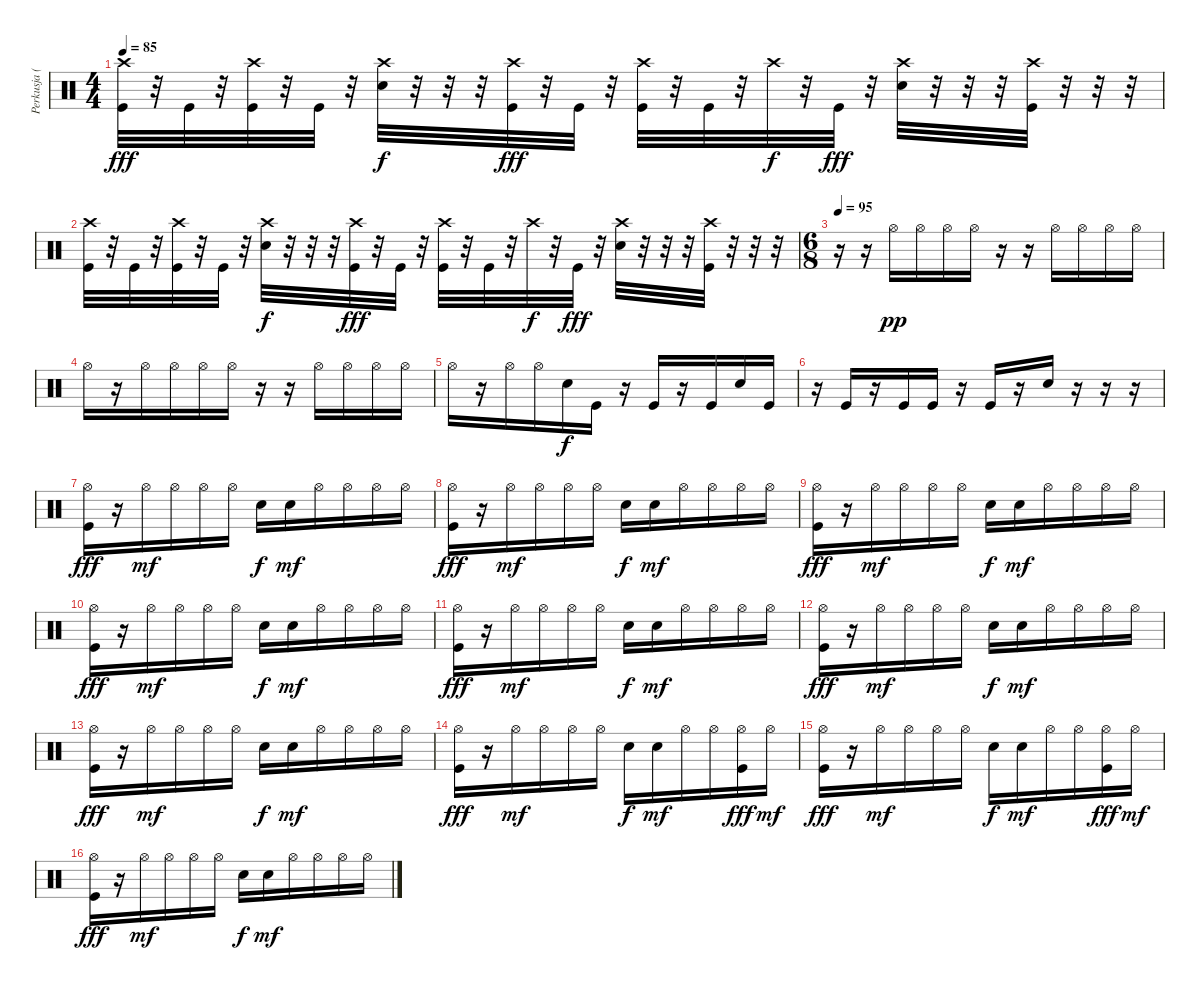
\track ("Perkusja (by kucharz89)" "Perkusja (") {instrument percussion}
\staff {score}
\articulation defaults
\ts (4 4)
\tempo 85
\clef neutral
\ks c
("Crash high (hit)" "Kick (hit)").32{dy fff} r.32 "Kick (hit)".32 r.32 ("Crash high (hit)" "Kick (hit)").32 r.32 "Kick (hit)".32 r.32 ("Crash high (hit)" "Electric Snare (hit)").32{dy f} r.32 r.32 r.32 ("Crash high (hit)" "Kick (hit)").32{dy fff} r.32 "Kick (hit)".32 r.32 ("Crash high (hit)" "Kick (hit)").32 r.32 "Kick (hit)".32 r.32 "Crash high (hit)".32{dy f} r.32 "Kick (hit)".32{dy fff} r.32 ("Crash high (hit)" "Electric Snare (hit)").32 r.32 r.32 r.32 ("Crash high (hit)" "Kick (hit)").32 r.32 r.32 r.32 |
("Crash high (hit)" "Kick (hit)").32 r.32 "Kick (hit)".32 r.32 ("Crash high (hit)" "Kick (hit)").32 r.32 "Kick (hit)".32 r.32 ("Crash high (hit)" "Electric Snare (hit)").32{dy f} r.32 r.32 r.32 ("Crash high (hit)" "Kick (hit)").32{dy fff} r.32 "Kick (hit)".32 r.32 ("Crash high (hit)" "Kick (hit)").32 r.32 "Kick (hit)".32 r.32 "Crash high (hit)".32{dy f} r.32 "Kick (hit)".32{dy fff} r.32 ("Crash high (hit)" "Electric Snare (hit)").32 r.32 r.32 r.32 ("Crash high (hit)" "Kick (hit)").32 r.32 r.32 r.32 |
\ts (6 8)
\tempo 95
r.16 r.16 "Hi-Hat (open)".16{dy pp} "Hi-Hat (open)".16 "Hi-Hat (open)".16 "Hi-Hat (open)".16 r.16 r.16 "Hi-Hat (open)".16 "Hi-Hat (open)".16 "Hi-Hat (open)".16 "Hi-Hat (open)".16 |
"Hi-Hat (open)".16 r.16 "Hi-Hat (open)".16 "Hi-Hat (open)".16 "Hi-Hat (open)".16 "Hi-Hat (open)".16 r.16 r.16 "Hi-Hat (open)".16 "Hi-Hat (open)".16 "Hi-Hat (open)".16 "Hi-Hat (open)".16 |
"Hi-Hat (open)".16 r.16 "Hi-Hat (open)".16 "Hi-Hat (open)".16 "Electric Snare (hit)".16{dy f} "Kick (hit)".16 r.16 "Kick (hit)".16 r.16 "Kick (hit)".16 "Electric Snare (hit)".16 "Kick (hit)".16 |
r.16 "Kick (hit)".16 r.16 "Kick (hit)".16 "Kick (hit)".16 r.16 "Kick (hit)".16 r.16 "Electric Snare (hit)".16 r.16 r.16 r.16 |
("Hi-Hat (open)" "Kick (hit)").16{dy fff} r.16 "Hi-Hat (open)".16{dy mf} "Hi-Hat (open)".16 "Hi-Hat (open)".16 "Hi-Hat (open)".16 "Electric Snare (hit)".16{dy f} "Electric Snare (hit)".16{dy mf} "Hi-Hat (open)".16 "Hi-Hat (open)".16 "Hi-Hat (open)".16 "Hi-Hat (open)".16 |
("Hi-Hat (open)" "Kick (hit)").16{dy fff} r.16 "Hi-Hat (open)".16{dy mf} "Hi-Hat (open)".16 "Hi-Hat (open)".16 "Hi-Hat (open)".16 "Electric Snare (hit)".16{dy f} "Electric Snare (hit)".16{dy mf} "Hi-Hat (open)".16 "Hi-Hat (open)".16 "Hi-Hat (open)".16 "Hi-Hat (open)".16 |
("Hi-Hat (open)" "Kick (hit)").16{dy fff} r.16 "Hi-Hat (open)".16{dy mf} "Hi-Hat (open)".16 "Hi-Hat (open)".16 "Hi-Hat (open)".16 "Electric Snare (hit)".16{dy f} "Electric Snare (hit)".16{dy mf} "Hi-Hat (open)".16 "Hi-Hat (open)".16 "Hi-Hat (open)".16 "Hi-Hat (open)".16 |
("Hi-Hat (open)" "Kick (hit)").16{dy fff} r.16 "Hi-Hat (open)".16{dy mf} "Hi-Hat (open)".16 "Hi-Hat (open)".16 "Hi-Hat (open)".16 "Electric Snare (hit)".16{dy f} "Electric Snare (hit)".16{dy mf} "Hi-Hat (open)".16 "Hi-Hat (open)".16 "Hi-Hat (open)".16 "Hi-Hat (open)".16 |
("Hi-Hat (open)" "Kick (hit)").16{dy fff} r.16 "Hi-Hat (open)".16{dy mf} "Hi-Hat (open)".16 "Hi-Hat (open)".16 "Hi-Hat (open)".16 "Electric Snare (hit)".16{dy f} "Electric Snare (hit)".16{dy mf} "Hi-Hat (open)".16 "Hi-Hat (open)".16 "Hi-Hat (open)".16 "Hi-Hat (open)".16 |
("Hi-Hat (open)" "Kick (hit)").16{dy fff} r.16 "Hi-Hat (open)".16{dy mf} "Hi-Hat (open)".16 "Hi-Hat (open)".16 "Hi-Hat (open)".16 "Electric Snare (hit)".16{dy f} "Electric Snare (hit)".16{dy mf} "Hi-Hat (open)".16 "Hi-Hat (open)".16 "Hi-Hat (open)".16 "Hi-Hat (open)".16 |
("Hi-Hat (open)" "Kick (hit)").16{dy fff} r.16 "Hi-Hat (open)".16{dy mf} "Hi-Hat (open)".16 "Hi-Hat (open)".16 "Hi-Hat (open)".16 "Electric Snare (hit)".16{dy f} "Electric Snare (hit)".16{dy mf} "Hi-Hat (open)".16 "Hi-Hat (open)".16 "Hi-Hat (open)".16 "Hi-Hat (open)".16 |
("Hi-Hat (open)" "Kick (hit)").16{dy fff} r.16 "Hi-Hat (open)".16{dy mf} "Hi-Hat (open)".16 "Hi-Hat (open)".16 "Hi-Hat (open)".16 "Electric Snare (hit)".16{dy f} "Electric Snare (hit)".16{dy mf} "Hi-Hat (open)".16 "Hi-Hat (open)".16 ("Hi-Hat (open)" "Kick (hit)").16{dy fff} "Hi-Hat (open)".16{dy mf} |
("Hi-Hat (open)" "Kick (hit)").16{dy fff} r.16 "Hi-Hat (open)".16{dy mf} "Hi-Hat (open)".16 "Hi-Hat (open)".16 "Hi-Hat (open)".16 "Electric Snare (hit)".16{dy f} "Electric Snare (hit)".16{dy mf} "Hi-Hat (open)".16 "Hi-Hat (open)".16 ("Hi-Hat (open)" "Kick (hit)").16{dy fff} "Hi-Hat (open)".16{dy mf} |
("Hi-Hat (open)" "Kick (hit)").16{dy fff} r.16 "Hi-Hat (open)".16{dy mf} "Hi-Hat (open)".16 "Hi-Hat (open)".16 "Hi-Hat (open)".16 "Electric Snare (hit)".16{dy f} "Electric Snare (hit)".16{dy mf} "Hi-Hat (open)".16 "Hi-Hat (open)".16 "Hi-Hat (open)".16 "Hi-Hat (open)".16
